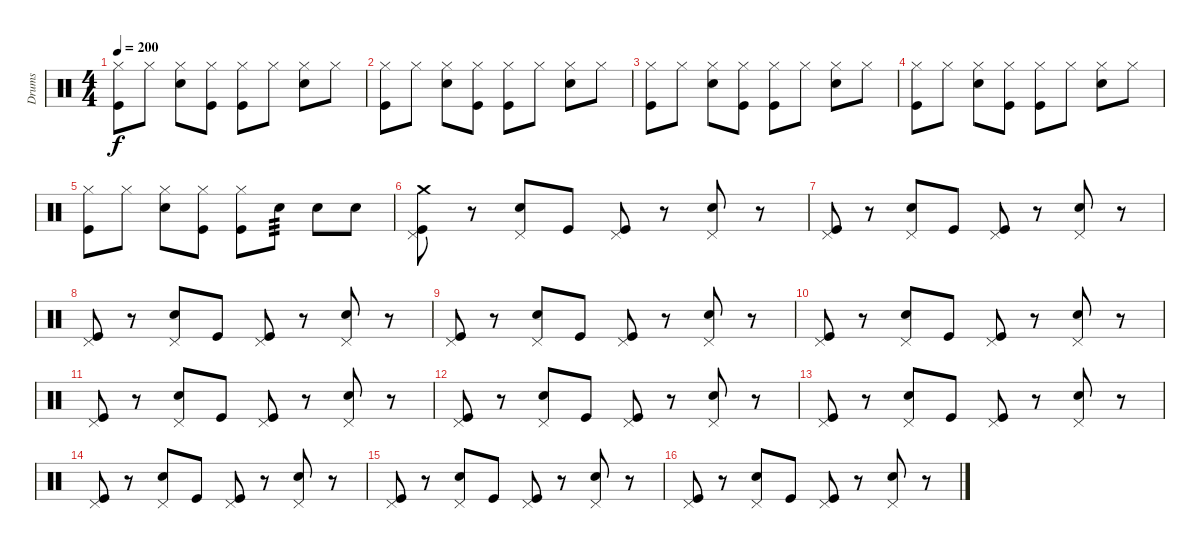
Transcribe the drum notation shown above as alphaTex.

\track ("Drums" "Drums") {instrument percussion}
\staff {score}
\articulation defaults
\ts (4 4)
\tempo 200
\clef neutral
\ks c
("Hi-Hat (closed)" "Kick (hit)").8{dy f} "Hi-Hat (closed)".8 ("Hi-Hat (closed)" "Snare (hit) 2").8 ("Hi-Hat (closed)" "Kick (hit)").8 ("Hi-Hat (closed)" "Kick (hit)").8 "Hi-Hat (closed)".8 ("Hi-Hat (closed)" "Snare (hit) 2").8 "Hi-Hat (closed)".8 |
("Hi-Hat (closed)" "Kick (hit)").8 "Hi-Hat (closed)".8 ("Hi-Hat (closed)" "Snare (hit) 2").8 ("Hi-Hat (closed)" "Kick (hit)").8 ("Hi-Hat (closed)" "Kick (hit)").8 "Hi-Hat (closed)".8 ("Hi-Hat (closed)" "Snare (hit) 2").8 "Hi-Hat (closed)".8 |
("Hi-Hat (closed)" "Kick (hit)").8 "Hi-Hat (closed)".8 ("Hi-Hat (closed)" "Snare (hit) 2").8 ("Hi-Hat (closed)" "Kick (hit)").8 ("Hi-Hat (closed)" "Kick (hit)").8 "Hi-Hat (closed)".8 ("Hi-Hat (closed)" "Snare (hit) 2").8 "Hi-Hat (closed)".8 |
("Hi-Hat (closed)" "Kick (hit)").8 "Hi-Hat (closed)".8 ("Hi-Hat (closed)" "Snare (hit) 2").8 ("Hi-Hat (closed)" "Kick (hit)").8 ("Hi-Hat (closed)" "Kick (hit)").8 "Hi-Hat (closed)".8 ("Hi-Hat (closed)" "Snare (hit) 2").8 "Hi-Hat (closed)".8 |
("Hi-Hat (closed)" "Kick (hit)").8 "Hi-Hat (closed)".8 ("Hi-Hat (closed)" "Snare (hit) 2").8 ("Hi-Hat (closed)" "Kick (hit)").8 ("Hi-Hat (closed)" "Kick (hit)").8 "Snare (hit) 2".8{tp 3} "Snare (hit) 2".8 "Snare (hit) 2".8 |
("Pedal Hi-Hat (hit)" "Crash medium (hit)" "Kick (hit)").8 r.8 ("Pedal Hi-Hat (hit)" "Snare (hit) 2").8 "Kick (hit)".8 ("Pedal Hi-Hat (hit)" "Kick (hit)").8 r.8 ("Pedal Hi-Hat (hit)" "Snare (hit) 2").8 r.8 |
("Pedal Hi-Hat (hit)" "Kick (hit)").8 r.8 ("Pedal Hi-Hat (hit)" "Snare (hit) 2").8 "Kick (hit)".8 ("Pedal Hi-Hat (hit)" "Kick (hit)").8 r.8 ("Pedal Hi-Hat (hit)" "Snare (hit) 2").8 r.8 |
("Pedal Hi-Hat (hit)" "Kick (hit)").8 r.8 ("Pedal Hi-Hat (hit)" "Snare (hit) 2").8 "Kick (hit)".8 ("Pedal Hi-Hat (hit)" "Kick (hit)").8 r.8 ("Pedal Hi-Hat (hit)" "Snare (hit) 2").8 r.8 |
("Pedal Hi-Hat (hit)" "Kick (hit)").8 r.8 ("Pedal Hi-Hat (hit)" "Snare (hit) 2").8 "Kick (hit)".8 ("Pedal Hi-Hat (hit)" "Kick (hit)").8 r.8 ("Pedal Hi-Hat (hit)" "Snare (hit) 2").8 r.8 |
("Pedal Hi-Hat (hit)" "Kick (hit)").8 r.8 ("Pedal Hi-Hat (hit)" "Snare (hit) 2").8 "Kick (hit)".8 ("Pedal Hi-Hat (hit)" "Kick (hit)").8 r.8 ("Pedal Hi-Hat (hit)" "Snare (hit) 2").8 r.8 |
("Pedal Hi-Hat (hit)" "Kick (hit)").8 r.8 ("Pedal Hi-Hat (hit)" "Snare (hit) 2").8 "Kick (hit)".8 ("Pedal Hi-Hat (hit)" "Kick (hit)").8 r.8 ("Pedal Hi-Hat (hit)" "Snare (hit) 2").8 r.8 |
("Pedal Hi-Hat (hit)" "Kick (hit)").8 r.8 ("Pedal Hi-Hat (hit)" "Snare (hit) 2").8 "Kick (hit)".8 ("Pedal Hi-Hat (hit)" "Kick (hit)").8 r.8 ("Pedal Hi-Hat (hit)" "Snare (hit) 2").8 r.8 |
("Pedal Hi-Hat (hit)" "Kick (hit)").8 r.8 ("Pedal Hi-Hat (hit)" "Snare (hit) 2").8 "Kick (hit)".8 ("Pedal Hi-Hat (hit)" "Kick (hit)").8 r.8 ("Pedal Hi-Hat (hit)" "Snare (hit) 2").8 r.8 |
("Pedal Hi-Hat (hit)" "Kick (hit)").8 r.8 ("Pedal Hi-Hat (hit)" "Snare (hit) 2").8 "Kick (hit)".8 ("Pedal Hi-Hat (hit)" "Kick (hit)").8 r.8 ("Pedal Hi-Hat (hit)" "Snare (hit) 2").8 r.8 |
("Pedal Hi-Hat (hit)" "Kick (hit)").8 r.8 ("Pedal Hi-Hat (hit)" "Snare (hit) 2").8 "Kick (hit)".8 ("Pedal Hi-Hat (hit)" "Kick (hit)").8 r.8 ("Pedal Hi-Hat (hit)" "Snare (hit) 2").8 r.8 |
("Pedal Hi-Hat (hit)" "Kick (hit)").8 r.8 ("Pedal Hi-Hat (hit)" "Snare (hit) 2").8 "Kick (hit)".8 ("Pedal Hi-Hat (hit)" "Kick (hit)").8 r.8 ("Pedal Hi-Hat (hit)" "Snare (hit) 2").8 r.8
